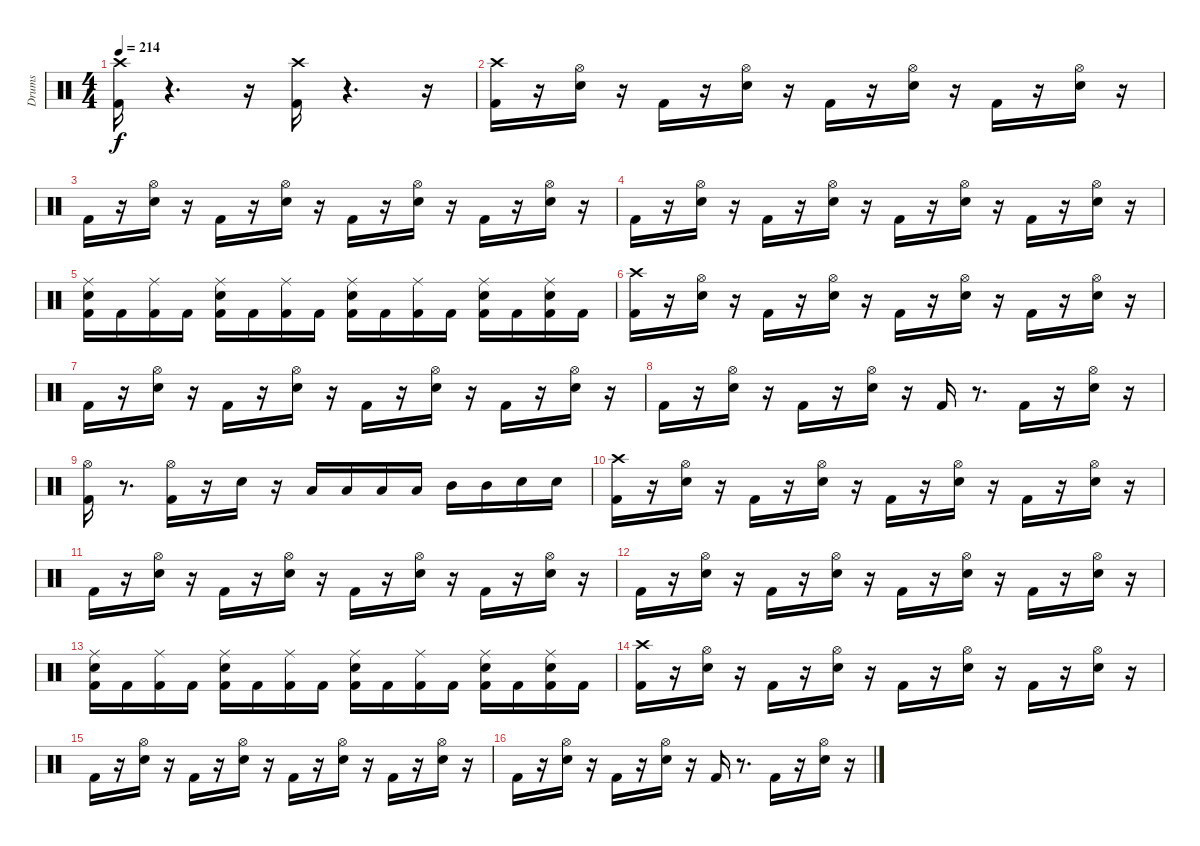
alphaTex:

\track ("Drums               " "Drums     ") {instrument percussion}
\staff {score}
\articulation defaults
\ts (4 4)
\tempo 214
\clef neutral
\ks c
("Kick (hit) 2" "Crash high (hit)").16{dy f} r.4{d} r.16 ("Kick (hit) 2" "Crash high (hit)").16 r.4{d} r.16 |
("Kick (hit) 2" "Crash high (hit)").16 r.16 ("Snare (hit) 2" "Hi-Hat (open)").16 r.16 "Kick (hit) 2".16 r.16 ("Snare (hit) 2" "Hi-Hat (open)").16 r.16 "Kick (hit) 2".16 r.16 ("Snare (hit) 2" "Hi-Hat (open)").16 r.16 "Kick (hit) 2".16 r.16 ("Snare (hit) 2" "Hi-Hat (open)").16 r.16 |
"Kick (hit) 2".16 r.16 ("Snare (hit) 2" "Hi-Hat (open)").16 r.16 "Kick (hit) 2".16 r.16 ("Snare (hit) 2" "Hi-Hat (open)").16 r.16 "Kick (hit) 2".16 r.16 ("Snare (hit) 2" "Hi-Hat (open)").16 r.16 "Kick (hit) 2".16 r.16 ("Snare (hit) 2" "Hi-Hat (open)").16 r.16 |
"Kick (hit) 2".16 r.16 ("Snare (hit) 2" "Hi-Hat (open)").16 r.16 "Kick (hit) 2".16 r.16 ("Snare (hit) 2" "Hi-Hat (open)").16 r.16 "Kick (hit) 2".16 r.16 ("Snare (hit) 2" "Hi-Hat (open)").16 r.16 "Kick (hit) 2".16 r.16 ("Snare (hit) 2" "Hi-Hat (open)").16 r.16 |
("Kick (hit) 2" "Snare (hit) 2" "Ride (middle)").16 "Kick (hit) 2".16 ("Kick (hit) 2" "Ride (middle)").16 "Kick (hit) 2".16 ("Kick (hit) 2" "Snare (hit) 2" "Ride (middle)").16 "Kick (hit) 2".16 ("Kick (hit) 2" "Ride (middle)").16 "Kick (hit) 2".16 ("Kick (hit) 2" "Snare (hit) 2" "Ride (middle)").16 "Kick (hit) 2".16 ("Kick (hit) 2" "Ride (middle)").16 "Kick (hit) 2".16 ("Kick (hit) 2" "Snare (hit) 2" "Ride (middle)").16 "Kick (hit) 2".16 ("Kick (hit) 2" "Snare (hit) 2" "Ride (middle)").16 "Kick (hit) 2".16 |
("Kick (hit) 2" "Crash high (hit)").16 r.16 ("Snare (hit) 2" "Hi-Hat (open)").16 r.16 "Kick (hit) 2".16 r.16 ("Snare (hit) 2" "Hi-Hat (open)").16 r.16 "Kick (hit) 2".16 r.16 ("Snare (hit) 2" "Hi-Hat (open)").16 r.16 "Kick (hit) 2".16 r.16 ("Snare (hit) 2" "Hi-Hat (open)").16 r.16 |
"Kick (hit) 2".16 r.16 ("Snare (hit) 2" "Hi-Hat (open)").16 r.16 "Kick (hit) 2".16 r.16 ("Snare (hit) 2" "Hi-Hat (open)").16 r.16 "Kick (hit) 2".16 r.16 ("Snare (hit) 2" "Hi-Hat (open)").16 r.16 "Kick (hit) 2".16 r.16 ("Snare (hit) 2" "Hi-Hat (open)").16 r.16 |
"Kick (hit) 2".16 r.16 ("Snare (hit) 2" "Hi-Hat (open)").16 r.16 "Kick (hit) 2".16 r.16 ("Snare (hit) 2" "Hi-Hat (open)").16 r.16 "Kick (hit) 2".16 r.8{d} "Kick (hit) 2".16 r.16 ("Snare (hit) 2" "Hi-Hat (open)").16 r.16 |
("Kick (hit) 2" "Hi-Hat (open)").16 r.8{d} ("Kick (hit) 2" "Hi-Hat (open)").16 r.16 "Snare (hit) 2".16 r.16 "Low Floor Tom (hit)".16 "Low Floor Tom (hit)".16 "Low Tom (hit)".16 "Low Tom (hit)".16 "Mid Tom (hit)".16 "Mid Tom (hit)".16 "Snare (hit) 2".16 "Snare (hit) 2".16 |
("Kick (hit) 2" "Crash high (hit)").16 r.16 ("Snare (hit) 2" "Hi-Hat (open)").16 r.16 "Kick (hit) 2".16 r.16 ("Snare (hit) 2" "Hi-Hat (open)").16 r.16 "Kick (hit) 2".16 r.16 ("Snare (hit) 2" "Hi-Hat (open)").16 r.16 "Kick (hit) 2".16 r.16 ("Snare (hit) 2" "Hi-Hat (open)").16 r.16 |
"Kick (hit) 2".16 r.16 ("Snare (hit) 2" "Hi-Hat (open)").16 r.16 "Kick (hit) 2".16 r.16 ("Snare (hit) 2" "Hi-Hat (open)").16 r.16 "Kick (hit) 2".16 r.16 ("Snare (hit) 2" "Hi-Hat (open)").16 r.16 "Kick (hit) 2".16 r.16 ("Snare (hit) 2" "Hi-Hat (open)").16 r.16 |
"Kick (hit) 2".16 r.16 ("Snare (hit) 2" "Hi-Hat (open)").16 r.16 "Kick (hit) 2".16 r.16 ("Snare (hit) 2" "Hi-Hat (open)").16 r.16 "Kick (hit) 2".16 r.16 ("Snare (hit) 2" "Hi-Hat (open)").16 r.16 "Kick (hit) 2".16 r.16 ("Snare (hit) 2" "Hi-Hat (open)").16 r.16 |
("Kick (hit) 2" "Snare (hit) 2" "Ride (middle)").16 "Kick (hit) 2".16 ("Kick (hit) 2" "Ride (middle)").16 "Kick (hit) 2".16 ("Kick (hit) 2" "Snare (hit) 2" "Ride (middle)").16 "Kick (hit) 2".16 ("Kick (hit) 2" "Ride (middle)").16 "Kick (hit) 2".16 ("Kick (hit) 2" "Snare (hit) 2" "Ride (middle)").16 "Kick (hit) 2".16 ("Kick (hit) 2" "Ride (middle)").16 "Kick (hit) 2".16 ("Kick (hit) 2" "Snare (hit) 2" "Ride (middle)").16 "Kick (hit) 2".16 ("Kick (hit) 2" "Snare (hit) 2" "Ride (middle)").16 "Kick (hit) 2".16 |
("Kick (hit) 2" "Crash high (hit)").16 r.16 ("Snare (hit) 2" "Hi-Hat (open)").16 r.16 "Kick (hit) 2".16 r.16 ("Snare (hit) 2" "Hi-Hat (open)").16 r.16 "Kick (hit) 2".16 r.16 ("Snare (hit) 2" "Hi-Hat (open)").16 r.16 "Kick (hit) 2".16 r.16 ("Snare (hit) 2" "Hi-Hat (open)").16 r.16 |
"Kick (hit) 2".16 r.16 ("Snare (hit) 2" "Hi-Hat (open)").16 r.16 "Kick (hit) 2".16 r.16 ("Snare (hit) 2" "Hi-Hat (open)").16 r.16 "Kick (hit) 2".16 r.16 ("Snare (hit) 2" "Hi-Hat (open)").16 r.16 "Kick (hit) 2".16 r.16 ("Snare (hit) 2" "Hi-Hat (open)").16 r.16 |
"Kick (hit) 2".16 r.16 ("Snare (hit) 2" "Hi-Hat (open)").16 r.16 "Kick (hit) 2".16 r.16 ("Snare (hit) 2" "Hi-Hat (open)").16 r.16 "Kick (hit) 2".16 r.8{d} "Kick (hit) 2".16 r.16 ("Snare (hit) 2" "Hi-Hat (open)").16 r.16
